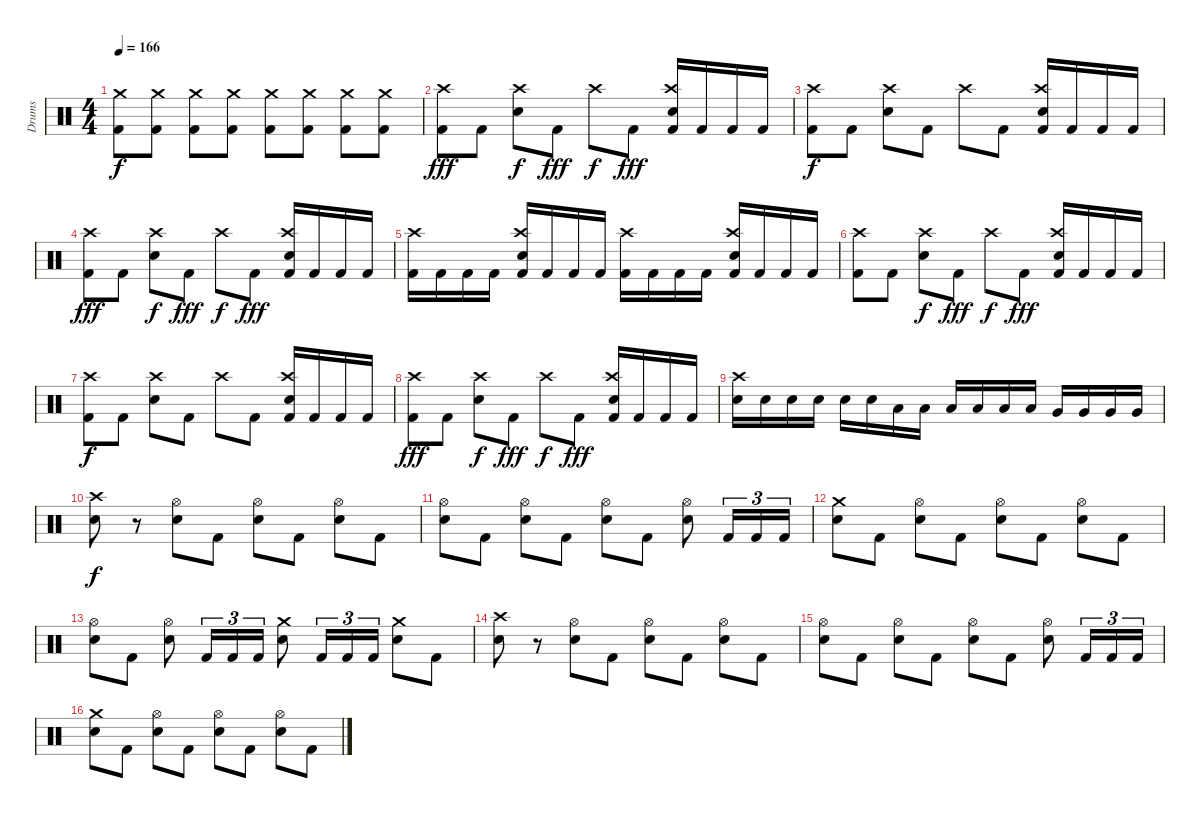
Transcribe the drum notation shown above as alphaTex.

\track ("Drums" "Drums") {instrument percussion}
\staff {score}
\articulation defaults
\ts (4 4)
\tempo 166
\clef neutral
\ks c
("Crash medium (hit)" "Kick (hit) 2").8{dy f} ("Crash medium (hit)" "Kick (hit) 2").8 ("Crash medium (hit)" "Kick (hit) 2").8 ("Crash medium (hit)" "Kick (hit) 2").8 ("Crash medium (hit)" "Kick (hit) 2").8 ("Crash medium (hit)" "Kick (hit) 2").8 ("Crash medium (hit)" "Kick (hit) 2").8 ("Crash medium (hit)" "Kick (hit) 2").8 |
("Crash high (hit)" "Kick (hit) 2").8{dy fff} "Kick (hit) 2".8 ("Crash high (hit)" "Snare (hit) 2").8{dy f} "Kick (hit) 2".8{dy fff} "Crash high (hit)".8{dy f} "Kick (hit) 2".8{dy fff} ("Crash high (hit)" "Snare (hit) 2" "Kick (hit) 2").16 "Kick (hit) 2".16 "Kick (hit) 2".16 "Kick (hit) 2".16 |
("Crash high (hit)" "Kick (hit) 2").8{dy f} "Kick (hit) 2".8 ("Crash high (hit)" "Snare (hit) 2").8 "Kick (hit) 2".8 "Crash high (hit)".8 "Kick (hit) 2".8 ("Crash high (hit)" "Snare (hit) 2" "Kick (hit) 2").16 "Kick (hit) 2".16 "Kick (hit) 2".16 "Kick (hit) 2".16 |
("Crash high (hit)" "Kick (hit) 2").8{dy fff} "Kick (hit) 2".8 ("Crash high (hit)" "Snare (hit) 2").8{dy f} "Kick (hit) 2".8{dy fff} "Crash high (hit)".8{dy f} "Kick (hit) 2".8{dy fff} ("Crash high (hit)" "Snare (hit) 2" "Kick (hit) 2").16 "Kick (hit) 2".16 "Kick (hit) 2".16 "Kick (hit) 2".16 |
("Crash high (hit)" "Kick (hit) 2").16 "Kick (hit) 2".16 "Kick (hit) 2".16 "Kick (hit) 2".16 ("Crash high (hit)" "Snare (hit) 2" "Kick (hit) 2").16 "Kick (hit) 2".16 "Kick (hit) 2".16 "Kick (hit) 2".16 ("Crash high (hit)" "Kick (hit) 2").16 "Kick (hit) 2".16 "Kick (hit) 2".16 "Kick (hit) 2".16 ("Crash high (hit)" "Snare (hit) 2" "Kick (hit) 2").16 "Kick (hit) 2".16 "Kick (hit) 2".16 "Kick (hit) 2".16 |
("Crash high (hit)" "Kick (hit) 2").8 "Kick (hit) 2".8 ("Crash high (hit)" "Snare (hit) 2").8{dy f} "Kick (hit) 2".8{dy fff} "Crash high (hit)".8{dy f} "Kick (hit) 2".8{dy fff} ("Crash high (hit)" "Snare (hit) 2" "Kick (hit) 2").16 "Kick (hit) 2".16 "Kick (hit) 2".16 "Kick (hit) 2".16 |
("Crash high (hit)" "Kick (hit) 2").8{dy f} "Kick (hit) 2".8 ("Crash high (hit)" "Snare (hit) 2").8 "Kick (hit) 2".8 "Crash high (hit)".8 "Kick (hit) 2".8 ("Crash high (hit)" "Snare (hit) 2" "Kick (hit) 2").16 "Kick (hit) 2".16 "Kick (hit) 2".16 "Kick (hit) 2".16 |
("Crash high (hit)" "Kick (hit) 2").8{dy fff} "Kick (hit) 2".8 ("Crash high (hit)" "Snare (hit) 2").8{dy f} "Kick (hit) 2".8{dy fff} "Crash high (hit)".8{dy f} "Kick (hit) 2".8{dy fff} ("Crash high (hit)" "Snare (hit) 2" "Kick (hit) 2").16 "Kick (hit) 2".16 "Kick (hit) 2".16 "Kick (hit) 2".16 |
("Crash high (hit)" "Snare (hit) 2").16 "Snare (hit) 2".16 "Snare (hit) 2".16 "Snare (hit) 2".16 "Snare (hit) 2".16 "Snare (hit) 2".16 "Low Tom (hit)".16 "Low Tom (hit)".16 "Low Tom (hit)".16 "Low Tom (hit)".16 "Low Tom (hit)".16 "Low Tom (hit)".16 "Very Low Tom (hit)".16 "Very Low Tom (hit)".16 "Very Low Tom (hit)".16 "Very Low Tom (hit)".16 |
("Crash high (hit)" "Snare (hit) 2").8{dy f} r.8 ("Hi-Hat (open)" "Snare (hit) 2").8 "Kick (hit) 2".8 ("Hi-Hat (open)" "Snare (hit) 2").8 "Kick (hit) 2".8 ("Hi-Hat (open)" "Snare (hit) 2").8 "Kick (hit) 2".8 |
("Hi-Hat (open)" "Snare (hit) 2").8 "Kick (hit) 2".8 ("Hi-Hat (open)" "Snare (hit) 2").8 "Kick (hit) 2".8 ("Hi-Hat (open)" "Snare (hit) 2").8 "Kick (hit) 2".8 ("Hi-Hat (open)" "Snare (hit) 2").8 "Kick (hit) 2".16{tu (3 2)} "Kick (hit) 2".16{tu (3 2)} "Kick (hit) 2".16{tu (3 2)} |
("Crash medium (hit)" "Snare (hit) 2").8 "Kick (hit) 2".8 ("Hi-Hat (open)" "Snare (hit) 2").8 "Kick (hit) 2".8 ("Hi-Hat (open)" "Snare (hit) 2").8 "Kick (hit) 2".8 ("Hi-Hat (open)" "Snare (hit) 2").8 "Kick (hit) 2".8 |
("Hi-Hat (open)" "Snare (hit) 2").8 "Kick (hit) 2".8 ("Hi-Hat (open)" "Snare (hit) 2").8 "Kick (hit) 2".16{tu (3 2)} "Kick (hit) 2".16{tu (3 2)} "Kick (hit) 2".16{tu (3 2)} ("Crash medium (hit)" "Snare (hit) 2").8 "Kick (hit) 2".16{tu (3 2)} "Kick (hit) 2".16{tu (3 2)} "Kick (hit) 2".16{tu (3 2)} ("Crash medium (hit)" "Snare (hit) 2").8 "Kick (hit) 2".8 |
("Crash high (hit)" "Snare (hit) 2").8 r.8 ("Hi-Hat (open)" "Snare (hit) 2").8 "Kick (hit) 2".8 ("Hi-Hat (open)" "Snare (hit) 2").8 "Kick (hit) 2".8 ("Hi-Hat (open)" "Snare (hit) 2").8 "Kick (hit) 2".8 |
("Hi-Hat (open)" "Snare (hit) 2").8 "Kick (hit) 2".8 ("Hi-Hat (open)" "Snare (hit) 2").8 "Kick (hit) 2".8 ("Hi-Hat (open)" "Snare (hit) 2").8 "Kick (hit) 2".8 ("Hi-Hat (open)" "Snare (hit) 2").8 "Kick (hit) 2".16{tu (3 2)} "Kick (hit) 2".16{tu (3 2)} "Kick (hit) 2".16{tu (3 2)} |
("Crash medium (hit)" "Snare (hit) 2").8 "Kick (hit) 2".8 ("Hi-Hat (open)" "Snare (hit) 2").8 "Kick (hit) 2".8 ("Hi-Hat (open)" "Snare (hit) 2").8 "Kick (hit) 2".8 ("Hi-Hat (open)" "Snare (hit) 2").8 "Kick (hit) 2".8
